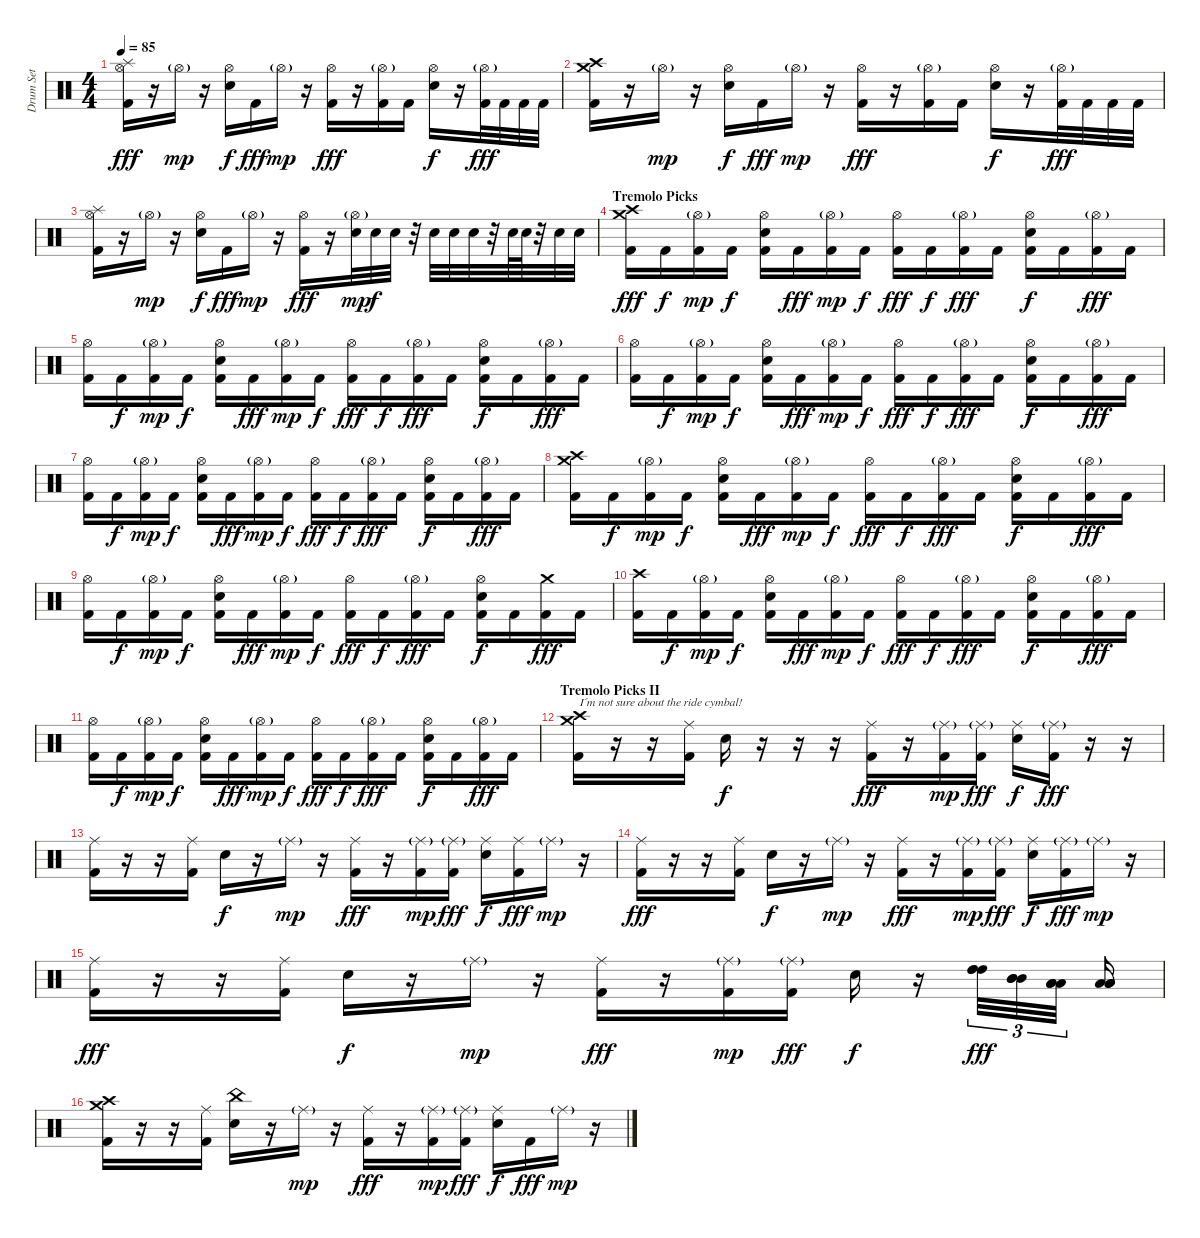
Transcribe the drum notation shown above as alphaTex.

\track ("Drum Set" "Drum Set") {instrument percussion}
\staff {score}
\articulation defaults
\ts (4 4)
\tempo 85
\clef neutral
\ks c
("Splash (hit)" "Hi-Hat (open)" "Kick (hit) 2").16{dy fff} r.16 "Hi-Hat (open)"{g}.16{dy mp} r.16 ("Hi-Hat (open)" "Snare (hit) 2").16{dy f} "Kick (hit) 2".16{dy fff} "Hi-Hat (open)"{g}.16{dy mp} r.16 ("Hi-Hat (open)" "Kick (hit) 2").16{dy fff} r.16 ("Hi-Hat (open)"{g} "Kick (hit) 2").16 "Kick (hit) 2".16 ("Hi-Hat (open)" "Snare (hit) 2").16{dy f} r.16 ("Hi-Hat (open)"{g} "Kick (hit) 2").32{dy fff} "Kick (hit) 2".32 "Kick (hit) 2".32 "Kick (hit) 2".32 |
("Crash high (hit)" "Crash medium (hit)" "Kick (hit) 2").16 r.16 "Hi-Hat (open)"{g}.16{dy mp} r.16 ("Hi-Hat (open)" "Snare (hit) 2").16{dy f} "Kick (hit) 2".16{dy fff} "Hi-Hat (open)"{g}.16{dy mp} r.16 ("Hi-Hat (open)" "Kick (hit) 2").16{dy fff} r.16 ("Hi-Hat (open)"{g} "Kick (hit) 2").16 "Kick (hit) 2".16 ("Hi-Hat (open)" "Snare (hit) 2").16{dy f} r.16 ("Hi-Hat (open)"{g} "Kick (hit) 2").32{dy fff} "Kick (hit) 2".32 "Kick (hit) 2".32 "Kick (hit) 2".32 |
("Splash (hit)" "Hi-Hat (open)" "Kick (hit) 2").16 r.16 "Hi-Hat (open)"{g}.16{dy mp} r.16 ("Hi-Hat (open)" "Snare (hit) 2").16{dy f} "Kick (hit) 2".16{dy fff} "Hi-Hat (open)"{g}.16{dy mp} r.16 ("Hi-Hat (open)" "Kick (hit) 2").16{dy fff} r.16 ("Hi-Hat (open)"{g} "Snare (hit) 2").32{dy mp} "Snare (hit) 2".32{dy f} "Snare (hit) 2".32 r.32 "Snare (hit) 2".32 "Snare (hit) 2".32 "Snare (hit) 2".32 r.32 "Snare (hit) 2".64 "Snare (hit) 2".64 r.32 "Snare (hit) 2".32 "Snare (hit) 2".32 |
\section ("" "Tremolo Picks")
("Crash high (hit)" "Crash medium (hit)" "Kick (hit) 2").16{dy fff} "Kick (hit) 2".16{dy f} ("Hi-Hat (open)"{g} "Kick (hit) 2").16{dy mp} "Kick (hit) 2".16{dy f} ("Hi-Hat (open)" "Snare (hit) 2" "Kick (hit) 2").16 "Kick (hit) 2".16{dy fff} ("Hi-Hat (open)"{g} "Kick (hit) 2").16{dy mp} "Kick (hit) 2".16{dy f} ("Hi-Hat (open)" "Kick (hit) 2").16{dy fff} "Kick (hit) 2".16{dy f} ("Hi-Hat (open)"{g} "Kick (hit) 2").16{dy fff} "Kick (hit) 2".16 ("Hi-Hat (open)" "Snare (hit) 2" "Kick (hit) 2").16{dy f} "Kick (hit) 2".16 ("Hi-Hat (open)"{g} "Kick (hit) 2").16{dy fff} "Kick (hit) 2".16 |
("Hi-Hat (open)" "Kick (hit) 2").16 "Kick (hit) 2".16{dy f} ("Hi-Hat (open)"{g} "Kick (hit) 2").16{dy mp} "Kick (hit) 2".16{dy f} ("Hi-Hat (open)" "Snare (hit) 2" "Kick (hit) 2").16 "Kick (hit) 2".16{dy fff} ("Hi-Hat (open)"{g} "Kick (hit) 2").16{dy mp} "Kick (hit) 2".16{dy f} ("Hi-Hat (open)" "Kick (hit) 2").16{dy fff} "Kick (hit) 2".16{dy f} ("Hi-Hat (open)"{g} "Kick (hit) 2").16{dy fff} "Kick (hit) 2".16 ("Hi-Hat (open)" "Snare (hit) 2" "Kick (hit) 2").16{dy f} "Kick (hit) 2".16 ("Hi-Hat (open)"{g} "Kick (hit) 2").16{dy fff} "Kick (hit) 2".16 |
("Hi-Hat (open)" "Kick (hit) 2").16 "Kick (hit) 2".16{dy f} ("Hi-Hat (open)"{g} "Kick (hit) 2").16{dy mp} "Kick (hit) 2".16{dy f} ("Hi-Hat (open)" "Snare (hit) 2" "Kick (hit) 2").16 "Kick (hit) 2".16{dy fff} ("Hi-Hat (open)"{g} "Kick (hit) 2").16{dy mp} "Kick (hit) 2".16{dy f} ("Hi-Hat (open)" "Kick (hit) 2").16{dy fff} "Kick (hit) 2".16{dy f} ("Hi-Hat (open)"{g} "Kick (hit) 2").16{dy fff} "Kick (hit) 2".16 ("Hi-Hat (open)" "Snare (hit) 2" "Kick (hit) 2").16{dy f} "Kick (hit) 2".16 ("Hi-Hat (open)"{g} "Kick (hit) 2").16{dy fff} "Kick (hit) 2".16 |
("Hi-Hat (open)" "Kick (hit) 2").16 "Kick (hit) 2".16{dy f} ("Hi-Hat (open)"{g} "Kick (hit) 2").16{dy mp} "Kick (hit) 2".16{dy f} ("Hi-Hat (open)" "Snare (hit) 2" "Kick (hit) 2").16 "Kick (hit) 2".16{dy fff} ("Hi-Hat (open)"{g} "Kick (hit) 2").16{dy mp} "Kick (hit) 2".16{dy f} ("Hi-Hat (open)" "Kick (hit) 2").16{dy fff} "Kick (hit) 2".16{dy f} ("Hi-Hat (open)"{g} "Kick (hit) 2").16{dy fff} "Kick (hit) 2".16 ("Hi-Hat (open)" "Snare (hit) 2" "Kick (hit) 2").16{dy f} "Kick (hit) 2".16 ("Hi-Hat (open)"{g} "Kick (hit) 2").16{dy fff} "Kick (hit) 2".16 |
("Crash high (hit)" "Crash medium (hit)" "Kick (hit) 2").16 "Kick (hit) 2".16{dy f} ("Hi-Hat (open)"{g} "Kick (hit) 2").16{dy mp} "Kick (hit) 2".16{dy f} ("Hi-Hat (open)" "Snare (hit) 2" "Kick (hit) 2").16 "Kick (hit) 2".16{dy fff} ("Hi-Hat (open)"{g} "Kick (hit) 2").16{dy mp} "Kick (hit) 2".16{dy f} ("Hi-Hat (open)" "Kick (hit) 2").16{dy fff} "Kick (hit) 2".16{dy f} ("Hi-Hat (open)"{g} "Kick (hit) 2").16{dy fff} "Kick (hit) 2".16 ("Hi-Hat (open)" "Snare (hit) 2" "Kick (hit) 2").16{dy f} "Kick (hit) 2".16 ("Hi-Hat (open)"{g} "Kick (hit) 2").16{dy fff} "Kick (hit) 2".16 |
("Hi-Hat (open)" "Kick (hit) 2").16 "Kick (hit) 2".16{dy f} ("Hi-Hat (open)"{g} "Kick (hit) 2").16{dy mp} "Kick (hit) 2".16{dy f} ("Hi-Hat (open)" "Snare (hit) 2" "Kick (hit) 2").16 "Kick (hit) 2".16{dy fff} ("Hi-Hat (open)"{g} "Kick (hit) 2").16{dy mp} "Kick (hit) 2".16{dy f} ("Hi-Hat (open)" "Kick (hit) 2").16{dy fff} "Kick (hit) 2".16{dy f} ("Hi-Hat (open)"{g} "Kick (hit) 2").16{dy fff} "Kick (hit) 2".16 ("Hi-Hat (open)" "Snare (hit) 2" "Kick (hit) 2").16{dy f} "Kick (hit) 2".16 ("Crash medium (hit)" "Kick (hit) 2").16{dy fff} "Kick (hit) 2".16 |
("Crash high (hit)" "Kick (hit) 2").16 "Kick (hit) 2".16{dy f} ("Hi-Hat (open)"{g} "Kick (hit) 2").16{dy mp} "Kick (hit) 2".16{dy f} ("Hi-Hat (open)" "Snare (hit) 2" "Kick (hit) 2").16 "Kick (hit) 2".16{dy fff} ("Hi-Hat (open)"{g} "Kick (hit) 2").16{dy mp} "Kick (hit) 2".16{dy f} ("Hi-Hat (open)" "Kick (hit) 2").16{dy fff} "Kick (hit) 2".16{dy f} ("Hi-Hat (open)"{g} "Kick (hit) 2").16{dy fff} "Kick (hit) 2".16 ("Hi-Hat (open)" "Snare (hit) 2" "Kick (hit) 2").16{dy f} "Kick (hit) 2".16 ("Hi-Hat (open)"{g} "Kick (hit) 2").16{dy fff} "Kick (hit) 2".16 |
("Hi-Hat (open)" "Kick (hit) 2").16 "Kick (hit) 2".16{dy f} ("Hi-Hat (open)"{g} "Kick (hit) 2").16{dy mp} "Kick (hit) 2".16{dy f} ("Hi-Hat (open)" "Snare (hit) 2" "Kick (hit) 2").16 "Kick (hit) 2".16{dy fff} ("Hi-Hat (open)"{g} "Kick (hit) 2").16{dy mp} "Kick (hit) 2".16{dy f} ("Hi-Hat (open)" "Kick (hit) 2").16{dy fff} "Kick (hit) 2".16{dy f} ("Hi-Hat (open)"{g} "Kick (hit) 2").16{dy fff} "Kick (hit) 2".16 ("Hi-Hat (open)" "Snare (hit) 2" "Kick (hit) 2").16{dy f} "Kick (hit) 2".16 ("Hi-Hat (open)"{g} "Kick (hit) 2").16{dy fff} "Kick (hit) 2".16 |
\section ("" "Tremolo Picks II")
("Crash high (hit)" "Crash medium (hit)" "Kick (hit) 2").16{txt "I´m not sure about the ride cymbal!"} r.16 r.16 ("Ride (middle)" "Kick (hit) 2").16 "Snare (hit) 2".16{dy f} r.16 r.16 r.16 ("Ride (middle)" "Kick (hit) 2").16{dy fff} r.16 ("Ride (middle)"{g} "Kick (hit) 2").16{dy mp} ("Ride (middle)"{g} "Kick (hit) 2").16{dy fff} ("Ride (middle)" "Snare (hit) 2").16{dy f} ("Ride (middle)"{g} "Kick (hit) 2").16{dy fff} r.16 r.16 |
("Ride (middle)" "Kick (hit) 2").16 r.16 r.16 ("Ride (middle)" "Kick (hit) 2").16 "Snare (hit) 2".16{dy f} r.16 "Ride (middle)"{g}.16{dy mp} r.16 ("Ride (middle)" "Kick (hit) 2").16{dy fff} r.16 ("Ride (middle)"{g} "Kick (hit) 2").16{dy mp} ("Ride (middle)"{g} "Kick (hit) 2").16{dy fff} ("Ride (middle)" "Snare (hit) 2").16{dy f} ("Ride (middle)" "Kick (hit) 2").16{dy fff} "Ride (middle)"{g}.16{dy mp} r.16 |
("Ride (middle)" "Kick (hit) 2").16{dy fff} r.16 r.16 ("Ride (middle)" "Kick (hit) 2").16 "Snare (hit) 2".16{dy f} r.16 "Ride (middle)"{g}.16{dy mp} r.16 ("Ride (middle)" "Kick (hit) 2").16{dy fff} r.16 ("Ride (middle)"{g} "Kick (hit) 2").16{dy mp} ("Ride (middle)"{g} "Kick (hit) 2").16{dy fff} ("Ride (middle)" "Snare (hit) 2").16{dy f} ("Ride (middle)"{g} "Kick (hit) 2").16{dy fff} "Ride (middle)"{g}.16{dy mp} r.16 |
("Ride (middle)" "Kick (hit) 2").16{dy fff} r.16 r.16 ("Ride (middle)" "Kick (hit) 2").16 "Snare (hit) 2".16{dy f} r.16 "Ride (middle)"{g}.16{dy mp} r.16 ("Ride (middle)" "Kick (hit) 2").16{dy fff} r.16 ("Ride (middle)"{g} "Kick (hit) 2").16{dy mp} ("Ride (middle)"{g} "Kick (hit) 2").16{dy fff} "Snare (hit) 2".16{dy f} r.16 ("High Tom (hit)" "High Tom (hit)" "High Tom (hit)").32{tu (3 2) dy fff} ("Mid Tom (hit)" "Mid Tom (hit)" "Mid Tom (hit)").32{tu (3 2)} ("Low Tom (hit)" "Low Tom (hit)" "Low Tom (hit)").32{tu (3 2)} ("Low Tom (hit)" "Low Tom (hit)" "Low Tom (hit)").16 |
("Crash high (hit)" "Crash medium (hit)" "Kick (hit) 2").16 r.16 r.16 ("Ride (middle)" "Kick (hit) 2").16 ("China (hit)" "Snare (hit) 2").16 r.16 "Ride (middle)"{g}.16{dy mp} r.16 ("Ride (middle)" "Kick (hit) 2").16{dy fff} r.16 ("Ride (middle)"{g} "Kick (hit) 2").16{dy mp} ("Ride (middle)"{g} "Kick (hit) 2").16{dy fff} ("Ride (middle)" "Snare (hit) 2").16{dy f} "Kick (hit) 2".16{dy fff} "Ride (middle)"{g}.16{dy mp} r.16
